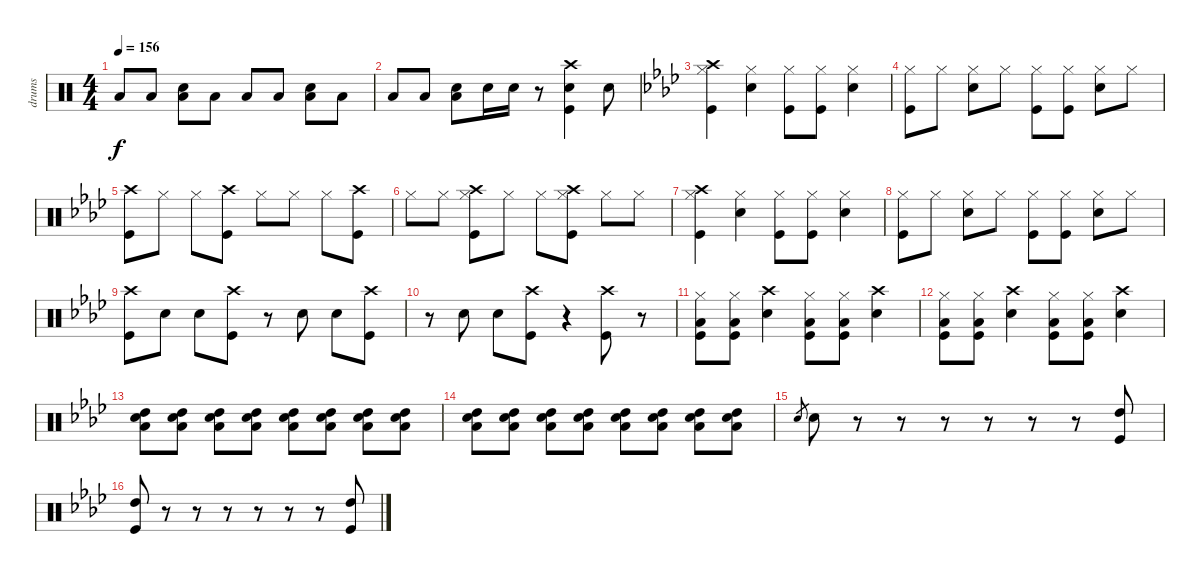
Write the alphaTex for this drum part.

\track ("drums" "drums") {instrument percussion}
\staff {score}
\articulation defaults
\ts (4 4)
\tempo 156
\clef neutral
\ks c "Low Tom (hit)".8{dy f} "Low Tom (hit)".8
("Snare (hit) 2" "Low Tom (hit)").8 "Low Tom (hit)".8 "Low Tom (hit)".8 "Low Tom (hit)".8 ("Snare (hit) 2" "Low Tom (hit)").8 "Low Tom (hit)".8 |
"Low Tom (hit)".8 "Low Tom (hit)".8 ("Snare (hit) 2" "Low Tom (hit)").8 "Snare (hit) 2".16 "Snare (hit) 2".16 r.8 ("Kick (hit)" "Snare (hit) 2" "Crash high (hit)").4 "Snare (hit) 2".8 |
\ks ab
("Crash high (hit)" "Kick (hit)" "Hi-Hat (closed)").4 ("Snare (hit) 2" "Hi-Hat (closed)").4 ("Kick (hit)" "Hi-Hat (closed)").8 ("Kick (hit)" "Hi-Hat (closed)").8 ("Snare (hit) 2" "Hi-Hat (closed)").4 |
("Kick (hit)" "Hi-Hat (closed)").8 "Hi-Hat (closed)".8 ("Snare (hit) 2" "Hi-Hat (closed)").8 "Hi-Hat (closed)".8 ("Kick (hit)" "Hi-Hat (closed)").8 ("Kick (hit)" "Hi-Hat (closed)").8 ("Snare (hit) 2" "Hi-Hat (closed)").8 "Hi-Hat (closed)".8 |
("Crash high (hit)" "Kick (hit)").8 "Hi-Hat (closed)".8 "Hi-Hat (closed)".8 ("Crash high (hit)" "Kick (hit)").8 "Hi-Hat (closed)".8 "Hi-Hat (closed)".8 "Hi-Hat (closed)".8 ("Crash high (hit)" "Kick (hit)").8 |
"Hi-Hat (closed)".8 "Hi-Hat (closed)".8 ("Hi-Hat (closed)" "Crash high (hit)" "Kick (hit)").8 "Hi-Hat (closed)".8 "Hi-Hat (closed)".8 ("Kick (hit)" "Crash high (hit)" "Hi-Hat (closed)").8 "Hi-Hat (closed)".8 "Hi-Hat (closed)".8 |
("Crash high (hit)" "Kick (hit)" "Hi-Hat (closed)").4 ("Snare (hit) 2" "Hi-Hat (closed)").4 ("Kick (hit)" "Hi-Hat (closed)").8 ("Kick (hit)" "Hi-Hat (closed)").8 ("Snare (hit) 2" "Hi-Hat (closed)").4 |
("Kick (hit)" "Hi-Hat (closed)").8 "Hi-Hat (closed)".8 ("Snare (hit) 2" "Hi-Hat (closed)").8 "Hi-Hat (closed)".8 ("Kick (hit)" "Hi-Hat (closed)").8 ("Kick (hit)" "Hi-Hat (closed)").8 ("Snare (hit) 2" "Hi-Hat (closed)").8 "Hi-Hat (closed)".8 |
("Crash high (hit)" "Kick (hit)").8 "Snare (hit) 2".8 "Snare (hit) 2".8 ("Crash high (hit)" "Kick (hit)").8 r.8 "Snare (hit) 2".8 "Snare (hit) 2".8 ("Crash high (hit)" "Kick (hit)").8 |
r.8 "Snare (hit) 2".8 "Snare (hit) 2".8 ("Crash high (hit)" "Kick (hit)").8 r.4 ("Crash high (hit)" "Kick (hit)").8 r.8 |
("Low Tom (hit)" "Kick (hit)" "Hi-Hat (closed)").8 ("Low Tom (hit)" "Kick (hit)" "Hi-Hat (closed)").8 ("Crash high (hit)" "Snare (hit) 2").4 ("Low Tom (hit)" "Kick (hit)" "Hi-Hat (closed)").8 ("Low Tom (hit)" "Kick (hit)" "Hi-Hat (closed)").8 ("Crash high (hit)" "Snare (hit) 2").4 |
("Low Tom (hit)" "Kick (hit)" "Hi-Hat (closed)").8 ("Low Tom (hit)" "Kick (hit)" "Hi-Hat (closed)").8 ("Crash high (hit)" "Snare (hit) 2").4 ("Low Tom (hit)" "Kick (hit)" "Hi-Hat (closed)").8 ("Low Tom (hit)" "Kick (hit)" "Hi-Hat (closed)").8 ("Crash high (hit)" "Snare (hit) 2").4 |
("Low Tom (hit)" "Snare (hit) 2" "High Tom (hit)").8 ("Low Tom (hit)" "Snare (hit) 2" "High Tom (hit)").8 ("Low Tom (hit)" "Snare (hit) 2" "High Tom (hit)").8 ("Low Tom (hit)" "Snare (hit) 2" "High Tom (hit)").8 ("Low Tom (hit)" "Snare (hit) 2" "High Tom (hit)").8 ("Low Tom (hit)" "Snare (hit) 2" "High Tom (hit)").8 ("Low Tom (hit)" "Snare (hit) 2" "High Tom (hit)").8 ("Low Tom (hit)" "Snare (hit) 2" "High Tom (hit)").8 |
("Low Tom (hit)" "Snare (hit) 2" "High Tom (hit)").8 ("Low Tom (hit)" "Snare (hit) 2" "High Tom (hit)").8 ("Low Tom (hit)" "Snare (hit) 2" "High Tom (hit)").8 ("Low Tom (hit)" "Snare (hit) 2" "High Tom (hit)").8 ("Low Tom (hit)" "Snare (hit) 2" "High Tom (hit)").8 ("Low Tom (hit)" "Snare (hit) 2" "High Tom (hit)").8 ("Low Tom (hit)" "Snare (hit) 2" "High Tom (hit)").8 ("Low Tom (hit)" "Snare (hit) 2" "High Tom (hit)").8 |
"Snare (hit) 2".8{gr} "Snare (hit) 2".8 r.8 r.8 r.8 r.8 r.8 r.8 ("Kick (hit)" "High Tom (hit)").8 |
("Kick (hit)" "High Tom (hit)").8 r.8 r.8 r.8 r.8 r.8 r.8 ("Kick (hit)" "High Tom (hit)").8
